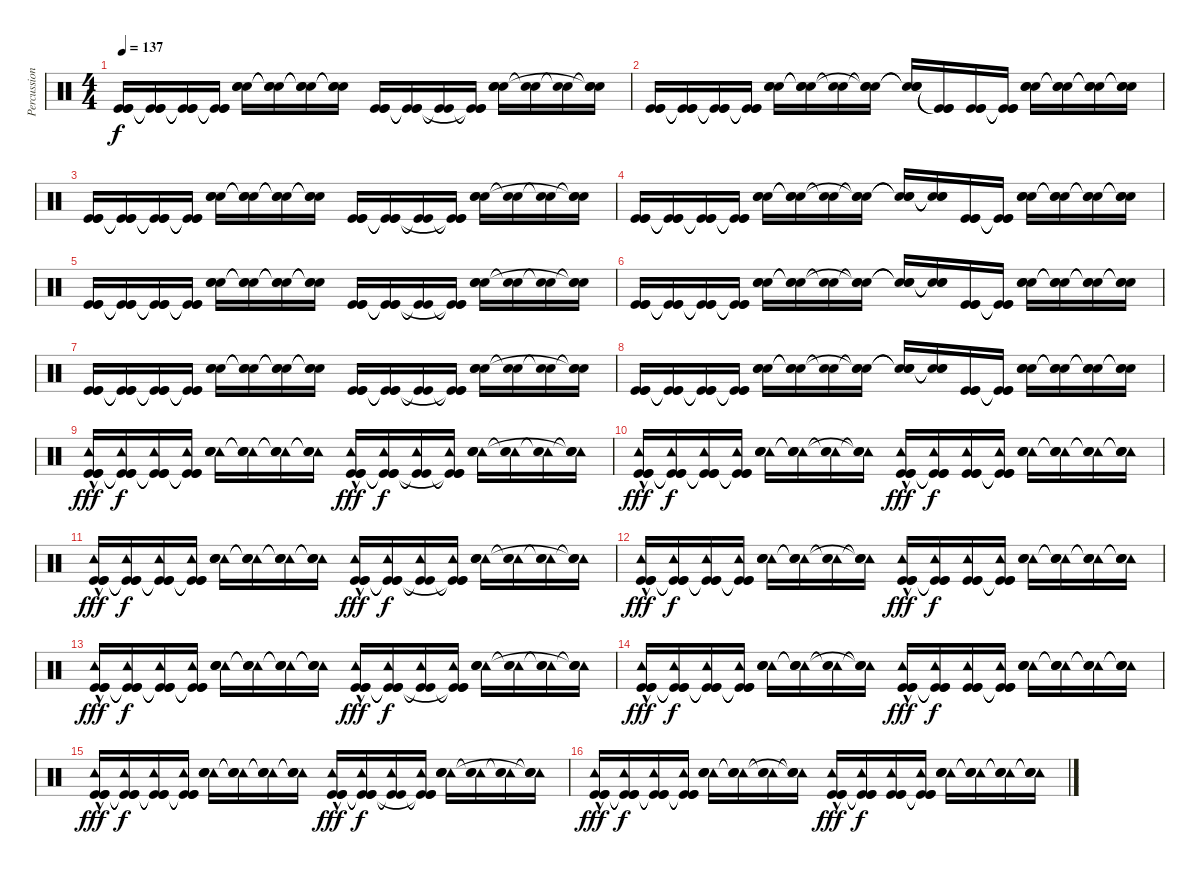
\track ("Percussion" "Percussion") {instrument percussion}
\staff {score}
\articulation defaults
\ts (4 4)
\tempo 137
\clef neutral
\ks c
("Kick (hit)" "Kick (hit)" "Kick (hit)").16{dy f} ("Kick (hit)"{t} "Kick (hit)"{t} "Kick (hit)"{t}).16 ("Kick (hit)"{t} "Kick (hit)"{t} "Kick (hit)"{t}).16 ("Kick (hit)"{t} "Kick (hit)"{t} "Kick (hit)"{t}).16 ("Snare (hit) 2" "Snare (hit) 2" "Snare (hit) 2").16 ("Snare (hit) 2"{t} "Snare (hit) 2"{t} "Snare (hit) 2"{t}).16 ("Snare (hit) 2"{t} "Snare (hit) 2"{t} "Snare (hit) 2"{t}).16 ("Snare (hit) 2"{t} "Snare (hit) 2"{t} "Snare (hit) 2"{t}).16 ("Kick (hit)" "Kick (hit)" "Kick (hit)").16 ("Kick (hit)"{t} "Kick (hit)"{t} "Kick (hit)"{t}).16 ("Kick (hit)"{t} "Kick (hit)"{t}).16 ("Kick (hit)"{t} "Kick (hit)"{t} "Kick (hit)"{t}).16 ("Snare (hit) 2" "Snare (hit) 2" "Snare (hit) 2").16 ("Snare (hit) 2"{t} "Snare (hit) 2"{t}).16 ("Snare (hit) 2"{t} "Snare (hit) 2"{t}).16 ("Snare (hit) 2"{t} "Snare (hit) 2"{t} "Snare (hit) 2"{t}).16 |
("Kick (hit)" "Kick (hit)" "Kick (hit)").16 ("Kick (hit)"{t} "Kick (hit)"{t} "Kick (hit)"{t}).16 ("Kick (hit)"{t} "Kick (hit)"{t} "Kick (hit)"{t}).16 ("Kick (hit)"{t} "Kick (hit)"{t} "Kick (hit)"{t}).16 ("Snare (hit) 2" "Snare (hit) 2" "Snare (hit) 2").16 ("Snare (hit) 2"{t} "Snare (hit) 2"{t} "Snare (hit) 2"{t}).16 ("Snare (hit) 2"{t} "Snare (hit) 2"{t}).16 ("Snare (hit) 2"{t} "Snare (hit) 2"{t} "Snare (hit) 2"{t}).16 ("Snare (hit) 2"{t} "Snare (hit) 2"{t} "Snare (hit) 2"{t}).16 ("Kick (hit)"{t} "Kick (hit)"{t} "Kick (hit)"{t}).16 ("Kick (hit)" "Kick (hit)" "Kick (hit)").16 ("Kick (hit)"{t} "Kick (hit)"{t} "Kick (hit)"{t}).16 ("Snare (hit) 2" "Snare (hit) 2" "Snare (hit) 2").16 ("Snare (hit) 2"{t} "Snare (hit) 2"{t} "Snare (hit) 2"{t}).16 ("Snare (hit) 2"{t} "Snare (hit) 2"{t} "Snare (hit) 2"{t}).16 ("Snare (hit) 2"{t} "Snare (hit) 2"{t} "Snare (hit) 2"{t}).16 |
("Kick (hit)" "Kick (hit)" "Kick (hit)").16 ("Kick (hit)"{t} "Kick (hit)"{t} "Kick (hit)"{t}).16 ("Kick (hit)"{t} "Kick (hit)"{t} "Kick (hit)"{t}).16 ("Kick (hit)"{t} "Kick (hit)"{t} "Kick (hit)"{t}).16 ("Snare (hit) 2" "Snare (hit) 2" "Snare (hit) 2").16 ("Snare (hit) 2"{t} "Snare (hit) 2"{t} "Snare (hit) 2"{t}).16 ("Snare (hit) 2"{t} "Snare (hit) 2"{t} "Snare (hit) 2"{t}).16 ("Snare (hit) 2"{t} "Snare (hit) 2"{t} "Snare (hit) 2"{t}).16 ("Kick (hit)" "Kick (hit)" "Kick (hit)").16 ("Kick (hit)"{t} "Kick (hit)"{t} "Kick (hit)"{t}).16 ("Kick (hit)"{t} "Kick (hit)"{t}).16 ("Kick (hit)"{t} "Kick (hit)"{t} "Kick (hit)"{t}).16 ("Snare (hit) 2" "Snare (hit) 2" "Snare (hit) 2").16 ("Snare (hit) 2"{t} "Snare (hit) 2"{t}).16 ("Snare (hit) 2"{t} "Snare (hit) 2"{t}).16 ("Snare (hit) 2"{t} "Snare (hit) 2"{t} "Snare (hit) 2"{t}).16 |
("Kick (hit)" "Kick (hit)" "Kick (hit)").16 ("Kick (hit)"{t} "Kick (hit)"{t} "Kick (hit)"{t}).16 ("Kick (hit)"{t} "Kick (hit)"{t} "Kick (hit)"{t}).16 ("Kick (hit)"{t} "Kick (hit)"{t} "Kick (hit)"{t}).16 ("Snare (hit) 2" "Snare (hit) 2" "Snare (hit) 2").16 ("Snare (hit) 2"{t} "Snare (hit) 2"{t} "Snare (hit) 2"{t}).16 ("Snare (hit) 2"{t} "Snare (hit) 2"{t}).16 ("Snare (hit) 2"{t} "Snare (hit) 2"{t} "Snare (hit) 2"{t}).16 ("Snare (hit) 2"{t} "Snare (hit) 2"{t} "Snare (hit) 2"{t}).16 ("Snare (hit) 2"{t} "Snare (hit) 2"{t} "Snare (hit) 2"{t}).16 ("Kick (hit)" "Kick (hit)" "Kick (hit)").16 ("Kick (hit)"{t} "Kick (hit)"{t} "Kick (hit)"{t}).16 ("Snare (hit) 2" "Snare (hit) 2" "Snare (hit) 2").16 ("Snare (hit) 2"{t} "Snare (hit) 2"{t} "Snare (hit) 2"{t}).16 ("Snare (hit) 2"{t} "Snare (hit) 2"{t} "Snare (hit) 2"{t}).16 ("Snare (hit) 2"{t} "Snare (hit) 2"{t} "Snare (hit) 2"{t}).16 |
("Kick (hit)" "Kick (hit)" "Kick (hit)").16 ("Kick (hit)"{t} "Kick (hit)"{t} "Kick (hit)"{t}).16 ("Kick (hit)"{t} "Kick (hit)"{t} "Kick (hit)"{t}).16 ("Kick (hit)"{t} "Kick (hit)"{t} "Kick (hit)"{t}).16 ("Snare (hit) 2" "Snare (hit) 2" "Snare (hit) 2").16 ("Snare (hit) 2"{t} "Snare (hit) 2"{t} "Snare (hit) 2"{t}).16 ("Snare (hit) 2"{t} "Snare (hit) 2"{t} "Snare (hit) 2"{t}).16 ("Snare (hit) 2"{t} "Snare (hit) 2"{t} "Snare (hit) 2"{t}).16 ("Kick (hit)" "Kick (hit)" "Kick (hit)").16 ("Kick (hit)"{t} "Kick (hit)"{t} "Kick (hit)"{t}).16 ("Kick (hit)"{t} "Kick (hit)"{t}).16 ("Kick (hit)"{t} "Kick (hit)"{t} "Kick (hit)"{t}).16 ("Snare (hit) 2" "Snare (hit) 2" "Snare (hit) 2").16 ("Snare (hit) 2"{t} "Snare (hit) 2"{t}).16 ("Snare (hit) 2"{t} "Snare (hit) 2"{t}).16 ("Snare (hit) 2"{t} "Snare (hit) 2"{t} "Snare (hit) 2"{t}).16 |
("Kick (hit)" "Kick (hit)" "Kick (hit)").16 ("Kick (hit)"{t} "Kick (hit)"{t} "Kick (hit)"{t}).16 ("Kick (hit)"{t} "Kick (hit)"{t} "Kick (hit)"{t}).16 ("Kick (hit)"{t} "Kick (hit)"{t} "Kick (hit)"{t}).16 ("Snare (hit) 2" "Snare (hit) 2" "Snare (hit) 2").16 ("Snare (hit) 2"{t} "Snare (hit) 2"{t} "Snare (hit) 2"{t}).16 ("Snare (hit) 2"{t} "Snare (hit) 2"{t}).16 ("Snare (hit) 2"{t} "Snare (hit) 2"{t} "Snare (hit) 2"{t}).16 ("Snare (hit) 2"{t} "Snare (hit) 2"{t} "Snare (hit) 2"{t}).16 ("Snare (hit) 2"{t} "Snare (hit) 2"{t} "Snare (hit) 2"{t}).16 ("Kick (hit)" "Kick (hit)" "Kick (hit)").16 ("Kick (hit)"{t} "Kick (hit)"{t} "Kick (hit)"{t}).16 ("Snare (hit) 2" "Snare (hit) 2" "Snare (hit) 2").16 ("Snare (hit) 2"{t} "Snare (hit) 2"{t} "Snare (hit) 2"{t}).16 ("Snare (hit) 2"{t} "Snare (hit) 2"{t} "Snare (hit) 2"{t}).16 ("Snare (hit) 2"{t} "Snare (hit) 2"{t} "Snare (hit) 2"{t}).16 |
("Kick (hit)" "Kick (hit)" "Kick (hit)").16 ("Kick (hit)"{t} "Kick (hit)"{t} "Kick (hit)"{t}).16 ("Kick (hit)"{t} "Kick (hit)"{t} "Kick (hit)"{t}).16 ("Kick (hit)"{t} "Kick (hit)"{t} "Kick (hit)"{t}).16 ("Snare (hit) 2" "Snare (hit) 2" "Snare (hit) 2").16 ("Snare (hit) 2"{t} "Snare (hit) 2"{t} "Snare (hit) 2"{t}).16 ("Snare (hit) 2"{t} "Snare (hit) 2"{t} "Snare (hit) 2"{t}).16 ("Snare (hit) 2"{t} "Snare (hit) 2"{t} "Snare (hit) 2"{t}).16 ("Kick (hit)" "Kick (hit)" "Kick (hit)").16 ("Kick (hit)"{t} "Kick (hit)"{t} "Kick (hit)"{t}).16 ("Kick (hit)"{t} "Kick (hit)"{t}).16 ("Kick (hit)"{t} "Kick (hit)"{t} "Kick (hit)"{t}).16 ("Snare (hit) 2" "Snare (hit) 2" "Snare (hit) 2").16 ("Snare (hit) 2"{t} "Snare (hit) 2"{t}).16 ("Snare (hit) 2"{t} "Snare (hit) 2"{t}).16 ("Snare (hit) 2"{t} "Snare (hit) 2"{t} "Snare (hit) 2"{t}).16 |
("Kick (hit)" "Kick (hit)" "Kick (hit)").16 ("Kick (hit)"{t} "Kick (hit)"{t} "Kick (hit)"{t}).16 ("Kick (hit)"{t} "Kick (hit)"{t} "Kick (hit)"{t}).16 ("Kick (hit)"{t} "Kick (hit)"{t} "Kick (hit)"{t}).16 ("Snare (hit) 2" "Snare (hit) 2" "Snare (hit) 2").16 ("Snare (hit) 2"{t} "Snare (hit) 2"{t} "Snare (hit) 2"{t}).16 ("Snare (hit) 2"{t} "Snare (hit) 2"{t}).16 ("Snare (hit) 2"{t} "Snare (hit) 2"{t} "Snare (hit) 2"{t}).16 ("Snare (hit) 2"{t} "Snare (hit) 2"{t} "Snare (hit) 2"{t}).16 ("Snare (hit) 2"{t} "Snare (hit) 2"{t} "Snare (hit) 2"{t}).16 ("Kick (hit)" "Kick (hit)" "Kick (hit)").16 ("Kick (hit)"{t} "Kick (hit)"{t} "Kick (hit)"{t}).16 ("Snare (hit) 2" "Snare (hit) 2" "Snare (hit) 2").16 ("Snare (hit) 2"{t} "Snare (hit) 2"{t} "Snare (hit) 2"{t}).16 ("Snare (hit) 2"{t} "Snare (hit) 2"{t} "Snare (hit) 2"{t}).16 ("Snare (hit) 2"{t} "Snare (hit) 2"{t} "Snare (hit) 2"{t}).16 |
("Tambourine (hit)"{hac} "Kick (hit)" "Kick (hit)" "Kick (hit)").16{dy fff} ("Tambourine (hit)" "Kick (hit)"{t} "Kick (hit)"{t} "Kick (hit)"{t}).16{dy f} ("Tambourine (hit)" "Kick (hit)"{t} "Kick (hit)"{t} "Kick (hit)"{t}).16 ("Tambourine (hit)" "Kick (hit)"{t} "Kick (hit)"{t} "Kick (hit)"{t}).16 ("Tambourine (hit)" "Snare (hit) 2" "Snare (hit) 2" "Snare (hit) 2").16 ("Tambourine (hit)" "Snare (hit) 2"{t} "Snare (hit) 2"{t} "Snare (hit) 2"{t}).16 ("Tambourine (hit)" "Snare (hit) 2"{t} "Snare (hit) 2"{t} "Snare (hit) 2"{t}).16 ("Tambourine (hit)" "Snare (hit) 2"{t} "Snare (hit) 2"{t} "Snare (hit) 2"{t}).16 ("Tambourine (hit)"{hac} "Kick (hit)" "Kick (hit)" "Kick (hit)").16{dy fff} ("Tambourine (hit)" "Kick (hit)"{t} "Kick (hit)"{t} "Kick (hit)"{t}).16{dy f} ("Tambourine (hit)" "Kick (hit)"{t} "Kick (hit)"{t}).16 ("Tambourine (hit)" "Kick (hit)"{t} "Kick (hit)"{t} "Kick (hit)"{t}).16 ("Tambourine (hit)" "Snare (hit) 2" "Snare (hit) 2" "Snare (hit) 2").16 ("Tambourine (hit)" "Snare (hit) 2"{t} "Snare (hit) 2"{t}).16 ("Tambourine (hit)" "Snare (hit) 2"{t} "Snare (hit) 2"{t}).16 ("Tambourine (hit)" "Snare (hit) 2"{t} "Snare (hit) 2"{t} "Snare (hit) 2"{t}).16 |
("Tambourine (hit)"{hac} "Kick (hit)" "Kick (hit)" "Kick (hit)").16{dy fff} ("Tambourine (hit)" "Kick (hit)"{t} "Kick (hit)"{t} "Kick (hit)"{t}).16{dy f} ("Tambourine (hit)" "Kick (hit)"{t} "Kick (hit)"{t} "Kick (hit)"{t}).16 ("Tambourine (hit)" "Kick (hit)"{t} "Kick (hit)"{t} "Kick (hit)"{t}).16 ("Tambourine (hit)" "Snare (hit) 2" "Snare (hit) 2" "Snare (hit) 2").16 ("Tambourine (hit)" "Snare (hit) 2"{t} "Snare (hit) 2"{t} "Snare (hit) 2"{t}).16 ("Tambourine (hit)" "Snare (hit) 2"{t} "Snare (hit) 2"{t}).16 ("Tambourine (hit)" "Snare (hit) 2"{t} "Snare (hit) 2"{t} "Snare (hit) 2"{t}).16 ("Tambourine (hit)"{hac} "Kick (hit)" "Kick (hit)" "Kick (hit)").16{dy fff} ("Tambourine (hit)" "Kick (hit)"{t} "Kick (hit)"{t} "Kick (hit)"{t}).16{dy f} ("Tambourine (hit)" "Kick (hit)" "Kick (hit)" "Kick (hit)").16 ("Tambourine (hit)" "Kick (hit)"{t} "Kick (hit)"{t} "Kick (hit)"{t}).16 ("Tambourine (hit)" "Snare (hit) 2" "Snare (hit) 2" "Snare (hit) 2").16 ("Tambourine (hit)" "Snare (hit) 2"{t} "Snare (hit) 2"{t} "Snare (hit) 2"{t}).16 ("Tambourine (hit)" "Snare (hit) 2"{t} "Snare (hit) 2"{t} "Snare (hit) 2"{t}).16 ("Tambourine (hit)" "Snare (hit) 2"{t} "Snare (hit) 2"{t} "Snare (hit) 2"{t}).16 |
("Tambourine (hit)"{hac} "Kick (hit)" "Kick (hit)" "Kick (hit)").16{dy fff} ("Tambourine (hit)" "Kick (hit)"{t} "Kick (hit)"{t} "Kick (hit)"{t}).16{dy f} ("Tambourine (hit)" "Kick (hit)"{t} "Kick (hit)"{t} "Kick (hit)"{t}).16 ("Tambourine (hit)" "Kick (hit)"{t} "Kick (hit)"{t} "Kick (hit)"{t}).16 ("Tambourine (hit)" "Snare (hit) 2" "Snare (hit) 2" "Snare (hit) 2").16 ("Tambourine (hit)" "Snare (hit) 2"{t} "Snare (hit) 2"{t} "Snare (hit) 2"{t}).16 ("Tambourine (hit)" "Snare (hit) 2"{t} "Snare (hit) 2"{t} "Snare (hit) 2"{t}).16 ("Tambourine (hit)" "Snare (hit) 2"{t} "Snare (hit) 2"{t} "Snare (hit) 2"{t}).16 ("Tambourine (hit)"{hac} "Kick (hit)" "Kick (hit)" "Kick (hit)").16{dy fff} ("Tambourine (hit)" "Kick (hit)"{t} "Kick (hit)"{t} "Kick (hit)"{t}).16{dy f} ("Tambourine (hit)" "Kick (hit)"{t} "Kick (hit)"{t}).16 ("Tambourine (hit)" "Kick (hit)"{t} "Kick (hit)"{t} "Kick (hit)"{t}).16 ("Tambourine (hit)" "Snare (hit) 2" "Snare (hit) 2" "Snare (hit) 2").16 ("Tambourine (hit)" "Snare (hit) 2"{t} "Snare (hit) 2"{t}).16 ("Tambourine (hit)" "Snare (hit) 2"{t} "Snare (hit) 2"{t}).16 ("Tambourine (hit)" "Snare (hit) 2"{t} "Snare (hit) 2"{t} "Snare (hit) 2"{t}).16 |
("Tambourine (hit)"{hac} "Kick (hit)" "Kick (hit)" "Kick (hit)").16{dy fff} ("Tambourine (hit)" "Kick (hit)"{t} "Kick (hit)"{t} "Kick (hit)"{t}).16{dy f} ("Tambourine (hit)" "Kick (hit)"{t} "Kick (hit)"{t} "Kick (hit)"{t}).16 ("Tambourine (hit)" "Kick (hit)"{t} "Kick (hit)"{t} "Kick (hit)"{t}).16 ("Tambourine (hit)" "Snare (hit) 2" "Snare (hit) 2" "Snare (hit) 2").16 ("Tambourine (hit)" "Snare (hit) 2"{t} "Snare (hit) 2"{t} "Snare (hit) 2"{t}).16 ("Tambourine (hit)" "Snare (hit) 2"{t} "Snare (hit) 2"{t}).16 ("Tambourine (hit)" "Snare (hit) 2"{t} "Snare (hit) 2"{t} "Snare (hit) 2"{t}).16 ("Tambourine (hit)"{hac} "Kick (hit)" "Kick (hit)" "Kick (hit)").16{dy fff} ("Tambourine (hit)" "Kick (hit)"{t} "Kick (hit)"{t} "Kick (hit)"{t}).16{dy f} ("Tambourine (hit)" "Kick (hit)" "Kick (hit)" "Kick (hit)").16 ("Tambourine (hit)" "Kick (hit)"{t} "Kick (hit)"{t} "Kick (hit)"{t}).16 ("Tambourine (hit)" "Snare (hit) 2" "Snare (hit) 2" "Snare (hit) 2").16 ("Tambourine (hit)" "Snare (hit) 2"{t} "Snare (hit) 2"{t} "Snare (hit) 2"{t}).16 ("Tambourine (hit)" "Snare (hit) 2"{t} "Snare (hit) 2"{t} "Snare (hit) 2"{t}).16 ("Tambourine (hit)" "Snare (hit) 2"{t} "Snare (hit) 2"{t} "Snare (hit) 2"{t}).16 |
("Tambourine (hit)"{hac} "Kick (hit)" "Kick (hit)" "Kick (hit)").16{dy fff} ("Tambourine (hit)" "Kick (hit)"{t} "Kick (hit)"{t} "Kick (hit)"{t}).16{dy f} ("Tambourine (hit)" "Kick (hit)"{t} "Kick (hit)"{t} "Kick (hit)"{t}).16 ("Tambourine (hit)" "Kick (hit)"{t} "Kick (hit)"{t} "Kick (hit)"{t}).16 ("Tambourine (hit)" "Snare (hit) 2" "Snare (hit) 2" "Snare (hit) 2").16 ("Tambourine (hit)" "Snare (hit) 2"{t} "Snare (hit) 2"{t} "Snare (hit) 2"{t}).16 ("Tambourine (hit)" "Snare (hit) 2"{t} "Snare (hit) 2"{t} "Snare (hit) 2"{t}).16 ("Tambourine (hit)" "Snare (hit) 2"{t} "Snare (hit) 2"{t} "Snare (hit) 2"{t}).16 ("Tambourine (hit)"{hac} "Kick (hit)" "Kick (hit)" "Kick (hit)").16{dy fff} ("Tambourine (hit)" "Kick (hit)"{t} "Kick (hit)"{t} "Kick (hit)"{t}).16{dy f} ("Tambourine (hit)" "Kick (hit)"{t} "Kick (hit)"{t}).16 ("Tambourine (hit)" "Kick (hit)"{t} "Kick (hit)"{t} "Kick (hit)"{t}).16 ("Tambourine (hit)" "Snare (hit) 2" "Snare (hit) 2" "Snare (hit) 2").16 ("Tambourine (hit)" "Snare (hit) 2"{t} "Snare (hit) 2"{t}).16 ("Tambourine (hit)" "Snare (hit) 2"{t} "Snare (hit) 2"{t}).16 ("Tambourine (hit)" "Snare (hit) 2"{t} "Snare (hit) 2"{t} "Snare (hit) 2"{t}).16 |
("Tambourine (hit)"{hac} "Kick (hit)" "Kick (hit)" "Kick (hit)").16{dy fff} ("Tambourine (hit)" "Kick (hit)"{t} "Kick (hit)"{t} "Kick (hit)"{t}).16{dy f} ("Tambourine (hit)" "Kick (hit)"{t} "Kick (hit)"{t} "Kick (hit)"{t}).16 ("Tambourine (hit)" "Kick (hit)"{t} "Kick (hit)"{t} "Kick (hit)"{t}).16 ("Tambourine (hit)" "Snare (hit) 2" "Snare (hit) 2" "Snare (hit) 2").16 ("Tambourine (hit)" "Snare (hit) 2"{t} "Snare (hit) 2"{t} "Snare (hit) 2"{t}).16 ("Tambourine (hit)" "Snare (hit) 2"{t} "Snare (hit) 2"{t}).16 ("Tambourine (hit)" "Snare (hit) 2"{t} "Snare (hit) 2"{t} "Snare (hit) 2"{t}).16 ("Tambourine (hit)"{hac} "Kick (hit)" "Kick (hit)" "Kick (hit)").16{dy fff} ("Tambourine (hit)" "Kick (hit)"{t} "Kick (hit)"{t} "Kick (hit)"{t}).16{dy f} ("Tambourine (hit)" "Kick (hit)" "Kick (hit)" "Kick (hit)").16 ("Tambourine (hit)" "Kick (hit)"{t} "Kick (hit)"{t} "Kick (hit)"{t}).16 ("Tambourine (hit)" "Snare (hit) 2" "Snare (hit) 2" "Snare (hit) 2").16 ("Tambourine (hit)" "Snare (hit) 2"{t} "Snare (hit) 2"{t} "Snare (hit) 2"{t}).16 ("Tambourine (hit)" "Snare (hit) 2"{t} "Snare (hit) 2"{t} "Snare (hit) 2"{t}).16 ("Tambourine (hit)" "Snare (hit) 2"{t} "Snare (hit) 2"{t} "Snare (hit) 2"{t}).16 |
("Tambourine (hit)"{hac} "Kick (hit)" "Kick (hit)" "Kick (hit)").16{dy fff} ("Tambourine (hit)" "Kick (hit)"{t} "Kick (hit)"{t} "Kick (hit)"{t}).16{dy f} ("Tambourine (hit)" "Kick (hit)"{t} "Kick (hit)"{t} "Kick (hit)"{t}).16 ("Tambourine (hit)" "Kick (hit)"{t} "Kick (hit)"{t} "Kick (hit)"{t}).16 ("Tambourine (hit)" "Snare (hit) 2" "Snare (hit) 2" "Snare (hit) 2").16 ("Tambourine (hit)" "Snare (hit) 2"{t} "Snare (hit) 2"{t} "Snare (hit) 2"{t}).16 ("Tambourine (hit)" "Snare (hit) 2"{t} "Snare (hit) 2"{t} "Snare (hit) 2"{t}).16 ("Tambourine (hit)" "Snare (hit) 2"{t} "Snare (hit) 2"{t} "Snare (hit) 2"{t}).16 ("Tambourine (hit)"{hac} "Kick (hit)" "Kick (hit)" "Kick (hit)").16{dy fff} ("Tambourine (hit)" "Kick (hit)"{t} "Kick (hit)"{t} "Kick (hit)"{t}).16{dy f} ("Tambourine (hit)" "Kick (hit)"{t} "Kick (hit)"{t}).16 ("Tambourine (hit)" "Kick (hit)"{t} "Kick (hit)"{t} "Kick (hit)"{t}).16 ("Tambourine (hit)" "Snare (hit) 2" "Snare (hit) 2" "Snare (hit) 2").16 ("Tambourine (hit)" "Snare (hit) 2"{t} "Snare (hit) 2"{t}).16 ("Tambourine (hit)" "Snare (hit) 2"{t} "Snare (hit) 2"{t}).16 ("Tambourine (hit)" "Snare (hit) 2"{t} "Snare (hit) 2"{t} "Snare (hit) 2"{t}).16 |
("Tambourine (hit)"{hac} "Kick (hit)" "Kick (hit)" "Kick (hit)").16{dy fff} ("Tambourine (hit)" "Kick (hit)"{t} "Kick (hit)"{t} "Kick (hit)"{t}).16{dy f} ("Tambourine (hit)" "Kick (hit)"{t} "Kick (hit)"{t} "Kick (hit)"{t}).16 ("Tambourine (hit)" "Kick (hit)"{t} "Kick (hit)"{t} "Kick (hit)"{t}).16 ("Tambourine (hit)" "Snare (hit) 2" "Snare (hit) 2" "Snare (hit) 2").16 ("Tambourine (hit)" "Snare (hit) 2"{t} "Snare (hit) 2"{t} "Snare (hit) 2"{t}).16 ("Tambourine (hit)" "Snare (hit) 2"{t} "Snare (hit) 2"{t}).16 ("Tambourine (hit)" "Snare (hit) 2"{t} "Snare (hit) 2"{t} "Snare (hit) 2"{t}).16 ("Tambourine (hit)"{hac} "Kick (hit)" "Kick (hit)" "Kick (hit)").16{dy fff} ("Tambourine (hit)" "Kick (hit)"{t} "Kick (hit)"{t} "Kick (hit)"{t}).16{dy f} ("Tambourine (hit)" "Kick (hit)" "Kick (hit)" "Kick (hit)").16 ("Tambourine (hit)" "Kick (hit)"{t} "Kick (hit)"{t} "Kick (hit)"{t}).16 ("Tambourine (hit)" "Snare (hit) 2" "Snare (hit) 2" "Snare (hit) 2").16 ("Tambourine (hit)" "Snare (hit) 2"{t} "Snare (hit) 2"{t} "Snare (hit) 2"{t}).16 ("Tambourine (hit)" "Snare (hit) 2"{t} "Snare (hit) 2"{t} "Snare (hit) 2"{t}).16 ("Tambourine (hit)" "Snare (hit) 2"{t} "Snare (hit) 2"{t} "Snare (hit) 2"{t}).16
